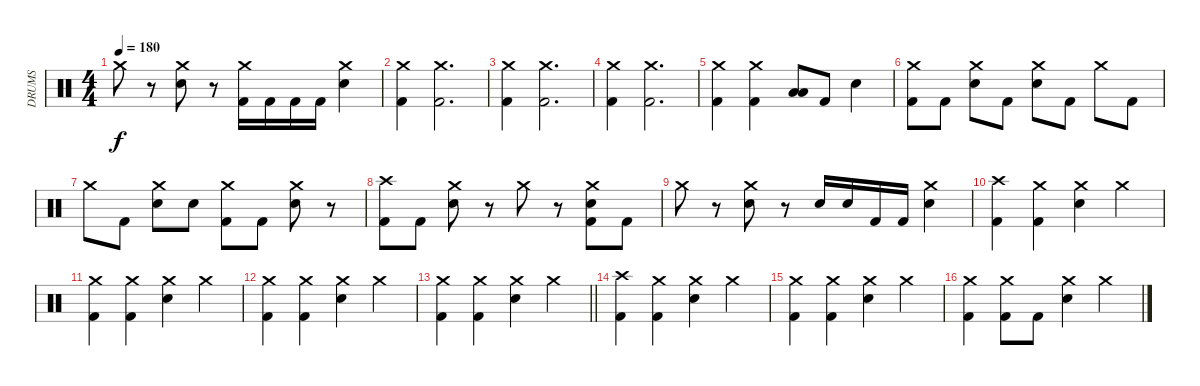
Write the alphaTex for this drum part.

\track ("DRUMS" "DRUMS") {instrument percussion}
\staff {score}
\articulation defaults
\ts (4 4)
\tempo 180
\clef neutral
\ks c "Crash medium (hit)".8{dy f}
r.8 ("Crash medium (hit)" "Electric Snare (hit)").8 r.8 ("Crash medium (hit)" "Kick (hit) 2").16 "Kick (hit) 2".16 "Kick (hit) 2".16 "Kick (hit) 2".16 ("Crash medium (hit)" "Electric Snare (hit)").4 |
("Crash medium (hit)" "Kick (hit) 2").4 ("Crash medium (hit)" "Kick (hit) 2").2{d} |
("Crash medium (hit)" "Kick (hit) 2").4 ("Crash medium (hit)" "Kick (hit) 2").2{d} |
("Crash medium (hit)" "Kick (hit) 2").4 ("Crash medium (hit)" "Kick (hit) 2").2{d} |
("Crash medium (hit)" "Kick (hit) 2").4 ("Crash medium (hit)" "Kick (hit) 2").4 ("Low Tom (hit)" "Low Floor Tom (hit)").8 "Kick (hit) 2".8 "Electric Snare (hit)".4 |
("Crash medium (hit)" "Kick (hit) 2").8 "Kick (hit) 2".8 ("Crash medium (hit)" "Electric Snare (hit)").8 "Kick (hit) 2".8 ("Crash medium (hit)" "Electric Snare (hit)").8 "Kick (hit) 2".8 "Crash medium (hit)".8 "Kick (hit) 2".8 |
"Crash medium (hit)".8 "Kick (hit) 2".8 ("Crash medium (hit)" "Electric Snare (hit)").8 "Electric Snare (hit)".8 ("Crash medium (hit)" "Kick (hit) 2").8 "Kick (hit) 2".8 ("Crash medium (hit)" "Electric Snare (hit)").8 r.8 |
("Crash high (hit)" "Kick (hit) 2").8 "Kick (hit) 2".8 ("Crash medium (hit)" "Electric Snare (hit)").8 r.8 "Crash medium (hit)".8 r.8 ("Crash medium (hit)" "Electric Snare (hit)" "Kick (hit) 2").8 "Kick (hit) 2".8 |
"Crash medium (hit)".8 r.8 ("Crash medium (hit)" "Electric Snare (hit)").8 r.8 "Electric Snare (hit)".16 "Electric Snare (hit)".16 "Kick (hit) 2".16 "Kick (hit) 2".16 ("Crash medium (hit)" "Electric Snare (hit)").4 |
("Crash high (hit)" "Kick (hit) 2").4 ("Crash medium (hit)" "Kick (hit) 2").4 ("Crash medium (hit)" "Electric Snare (hit)").4 "Crash medium (hit)".4 |
("Crash medium (hit)" "Kick (hit) 2").4 ("Crash medium (hit)" "Kick (hit) 2").4 ("Crash medium (hit)" "Electric Snare (hit)").4 "Crash medium (hit)".4 |
("Crash medium (hit)" "Kick (hit) 2").4 ("Crash medium (hit)" "Kick (hit) 2").4 ("Crash medium (hit)" "Electric Snare (hit)").4 "Crash medium (hit)".4 |
\barLineRight lightlight
("Crash medium (hit)" "Kick (hit) 2").4 ("Crash medium (hit)" "Kick (hit) 2").4 ("Crash medium (hit)" "Electric Snare (hit)").4 "Crash medium (hit)".4 |
("Crash high (hit)" "Kick (hit) 2").4 ("Crash medium (hit)" "Kick (hit) 2").4 ("Crash medium (hit)" "Electric Snare (hit)").4 "Crash medium (hit)".4 |
("Crash medium (hit)" "Kick (hit) 2").4 ("Crash medium (hit)" "Kick (hit) 2").4 ("Crash medium (hit)" "Electric Snare (hit)").4 "Crash medium (hit)".4 |
("Crash medium (hit)" "Kick (hit) 2").4 ("Crash medium (hit)" "Kick (hit) 2").8 "Kick (hit) 2".8 ("Crash medium (hit)" "Electric Snare (hit)").4 "Crash medium (hit)".4
